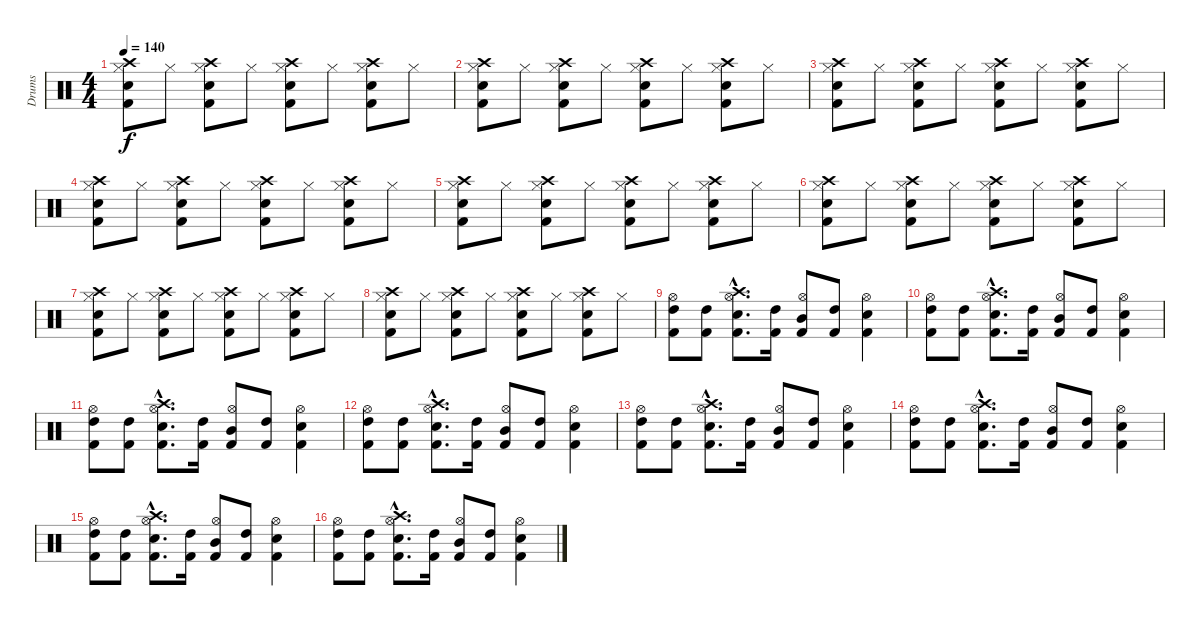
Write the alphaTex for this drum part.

\track ("Drums" "Drums") {instrument percussion}
\staff {score}
\articulation defaults
\ts (4 4)
\tempo 140
\clef neutral
\ks c
("Hi-Hat (closed)" "Electric Snare (hit)" "Kick (hit) 2" "Crash high (hit)").8{dy f} "Hi-Hat (closed)".8 ("Hi-Hat (closed)" "Electric Snare (hit)" "Kick (hit) 2" "Crash high (hit)").8 "Hi-Hat (closed)".8 ("Hi-Hat (closed)" "Electric Snare (hit)" "Kick (hit) 2" "Crash high (hit)").8 "Hi-Hat (closed)".8 ("Hi-Hat (closed)" "Electric Snare (hit)" "Kick (hit) 2" "Crash high (hit)").8 "Hi-Hat (closed)".8 |
("Hi-Hat (closed)" "Electric Snare (hit)" "Kick (hit) 2" "Crash high (hit)").8 "Hi-Hat (closed)".8 ("Hi-Hat (closed)" "Electric Snare (hit)" "Kick (hit) 2" "Crash high (hit)").8 "Hi-Hat (closed)".8 ("Hi-Hat (closed)" "Electric Snare (hit)" "Kick (hit) 2" "Crash high (hit)").8 "Hi-Hat (closed)".8 ("Hi-Hat (closed)" "Electric Snare (hit)" "Kick (hit) 2" "Crash high (hit)").8 "Hi-Hat (closed)".8 |
("Hi-Hat (closed)" "Electric Snare (hit)" "Kick (hit) 2" "Crash high (hit)").8 "Hi-Hat (closed)".8 ("Hi-Hat (closed)" "Electric Snare (hit)" "Kick (hit) 2" "Crash high (hit)").8 "Hi-Hat (closed)".8 ("Hi-Hat (closed)" "Electric Snare (hit)" "Kick (hit) 2" "Crash high (hit)").8 "Hi-Hat (closed)".8 ("Hi-Hat (closed)" "Electric Snare (hit)" "Kick (hit) 2" "Crash high (hit)").8 "Hi-Hat (closed)".8 |
("Hi-Hat (closed)" "Electric Snare (hit)" "Kick (hit) 2" "Crash high (hit)").8 "Hi-Hat (closed)".8 ("Hi-Hat (closed)" "Electric Snare (hit)" "Kick (hit) 2" "Crash high (hit)").8 "Hi-Hat (closed)".8 ("Hi-Hat (closed)" "Electric Snare (hit)" "Kick (hit) 2" "Crash high (hit)").8 "Hi-Hat (closed)".8 ("Hi-Hat (closed)" "Electric Snare (hit)" "Kick (hit) 2" "Crash high (hit)").8 "Hi-Hat (closed)".8 |
("Hi-Hat (closed)" "Electric Snare (hit)" "Kick (hit) 2" "Crash high (hit)").8 "Hi-Hat (closed)".8 ("Hi-Hat (closed)" "Electric Snare (hit)" "Kick (hit) 2" "Crash high (hit)").8 "Hi-Hat (closed)".8 ("Hi-Hat (closed)" "Electric Snare (hit)" "Kick (hit) 2" "Crash high (hit)").8 "Hi-Hat (closed)".8 ("Hi-Hat (closed)" "Electric Snare (hit)" "Kick (hit) 2" "Crash high (hit)").8 "Hi-Hat (closed)".8 |
("Hi-Hat (closed)" "Electric Snare (hit)" "Kick (hit) 2" "Crash high (hit)").8 "Hi-Hat (closed)".8 ("Hi-Hat (closed)" "Electric Snare (hit)" "Kick (hit) 2" "Crash high (hit)").8 "Hi-Hat (closed)".8 ("Hi-Hat (closed)" "Electric Snare (hit)" "Kick (hit) 2" "Crash high (hit)").8 "Hi-Hat (closed)".8 ("Hi-Hat (closed)" "Electric Snare (hit)" "Kick (hit) 2" "Crash high (hit)").8 "Hi-Hat (closed)".8 |
("Hi-Hat (closed)" "Electric Snare (hit)" "Kick (hit) 2" "Crash high (hit)").8 "Hi-Hat (closed)".8 ("Hi-Hat (closed)" "Electric Snare (hit)" "Kick (hit) 2" "Crash high (hit)").8 "Hi-Hat (closed)".8 ("Hi-Hat (closed)" "Electric Snare (hit)" "Kick (hit) 2" "Crash high (hit)").8 "Hi-Hat (closed)".8 ("Hi-Hat (closed)" "Electric Snare (hit)" "Kick (hit) 2" "Crash high (hit)").8 "Hi-Hat (closed)".8 |
("Hi-Hat (closed)" "Electric Snare (hit)" "Kick (hit) 2" "Crash high (hit)").8 "Hi-Hat (closed)".8 ("Hi-Hat (closed)" "Electric Snare (hit)" "Kick (hit) 2" "Crash high (hit)").8 "Hi-Hat (closed)".8 ("Hi-Hat (closed)" "Electric Snare (hit)" "Kick (hit) 2" "Crash high (hit)").8 "Hi-Hat (closed)".8 ("Hi-Hat (closed)" "Electric Snare (hit)" "Kick (hit) 2" "Crash high (hit)").8 "Hi-Hat (closed)".8 |
("Kick (hit) 2" "High Tom (hit)" "Hi-Hat (open)").8 ("Kick (hit) 2" "High Tom (hit)").8 ("Kick (hit) 2"{hac} "Electric Snare (hit)"{hac} "Crash high (hit)"{hac} "Hi-Hat (open)"{hac}).8{d} ("Kick (hit) 2" "High Tom (hit)").16 ("Kick (hit) 2" "Mid Tom (hit)" "Hi-Hat (open)").8 ("Kick (hit) 2" "High Tom (hit)").8 ("Kick (hit) 2" "Electric Snare (hit)" "Hi-Hat (open)").4 |
("Kick (hit) 2" "High Tom (hit)" "Hi-Hat (open)").8 ("Kick (hit) 2" "High Tom (hit)").8 ("Kick (hit) 2"{hac} "Electric Snare (hit)"{hac} "Crash high (hit)"{hac} "Hi-Hat (open)"{hac}).8{d} ("Kick (hit) 2" "High Tom (hit)").16 ("Kick (hit) 2" "Mid Tom (hit)" "Hi-Hat (open)").8 ("Kick (hit) 2" "High Tom (hit)").8 ("Kick (hit) 2" "Electric Snare (hit)" "Hi-Hat (open)").4 |
("Kick (hit) 2" "High Tom (hit)" "Hi-Hat (open)").8 ("Kick (hit) 2" "High Tom (hit)").8 ("Kick (hit) 2"{hac} "Electric Snare (hit)"{hac} "Crash high (hit)"{hac} "Hi-Hat (open)"{hac}).8{d} ("Kick (hit) 2" "High Tom (hit)").16 ("Kick (hit) 2" "Mid Tom (hit)" "Hi-Hat (open)").8 ("Kick (hit) 2" "High Tom (hit)").8 ("Kick (hit) 2" "Electric Snare (hit)" "Hi-Hat (open)").4 |
("Kick (hit) 2" "High Tom (hit)" "Hi-Hat (open)").8 ("Kick (hit) 2" "High Tom (hit)").8 ("Kick (hit) 2"{hac} "Electric Snare (hit)"{hac} "Crash high (hit)"{hac} "Hi-Hat (open)"{hac}).8{d} ("Kick (hit) 2" "High Tom (hit)").16 ("Kick (hit) 2" "Mid Tom (hit)" "Hi-Hat (open)").8 ("Kick (hit) 2" "High Tom (hit)").8 ("Kick (hit) 2" "Electric Snare (hit)" "Hi-Hat (open)").4 |
("Kick (hit) 2" "High Tom (hit)" "Hi-Hat (open)").8 ("Kick (hit) 2" "High Tom (hit)").8 ("Kick (hit) 2"{hac} "Electric Snare (hit)"{hac} "Crash high (hit)"{hac} "Hi-Hat (open)"{hac}).8{d} ("Kick (hit) 2" "High Tom (hit)").16 ("Kick (hit) 2" "Mid Tom (hit)" "Hi-Hat (open)").8 ("Kick (hit) 2" "High Tom (hit)").8 ("Kick (hit) 2" "Electric Snare (hit)" "Hi-Hat (open)").4 |
("Kick (hit) 2" "High Tom (hit)" "Hi-Hat (open)").8 ("Kick (hit) 2" "High Tom (hit)").8 ("Kick (hit) 2"{hac} "Electric Snare (hit)"{hac} "Crash high (hit)"{hac} "Hi-Hat (open)"{hac}).8{d} ("Kick (hit) 2" "High Tom (hit)").16 ("Kick (hit) 2" "Mid Tom (hit)" "Hi-Hat (open)").8 ("Kick (hit) 2" "High Tom (hit)").8 ("Kick (hit) 2" "Electric Snare (hit)" "Hi-Hat (open)").4 |
("Kick (hit) 2" "High Tom (hit)" "Hi-Hat (open)").8 ("Kick (hit) 2" "High Tom (hit)").8 ("Kick (hit) 2"{hac} "Electric Snare (hit)"{hac} "Crash high (hit)"{hac} "Hi-Hat (open)"{hac}).8{d} ("Kick (hit) 2" "High Tom (hit)").16 ("Kick (hit) 2" "Mid Tom (hit)" "Hi-Hat (open)").8 ("Kick (hit) 2" "High Tom (hit)").8 ("Kick (hit) 2" "Electric Snare (hit)" "Hi-Hat (open)").4 |
("Kick (hit) 2" "High Tom (hit)" "Hi-Hat (open)").8 ("Kick (hit) 2" "High Tom (hit)").8 ("Kick (hit) 2"{hac} "Electric Snare (hit)"{hac} "Crash high (hit)"{hac} "Hi-Hat (open)"{hac}).8{d} ("Kick (hit) 2" "High Tom (hit)").16 ("Kick (hit) 2" "Mid Tom (hit)" "Hi-Hat (open)").8 ("Kick (hit) 2" "High Tom (hit)").8 ("Kick (hit) 2" "Electric Snare (hit)" "Hi-Hat (open)").4
